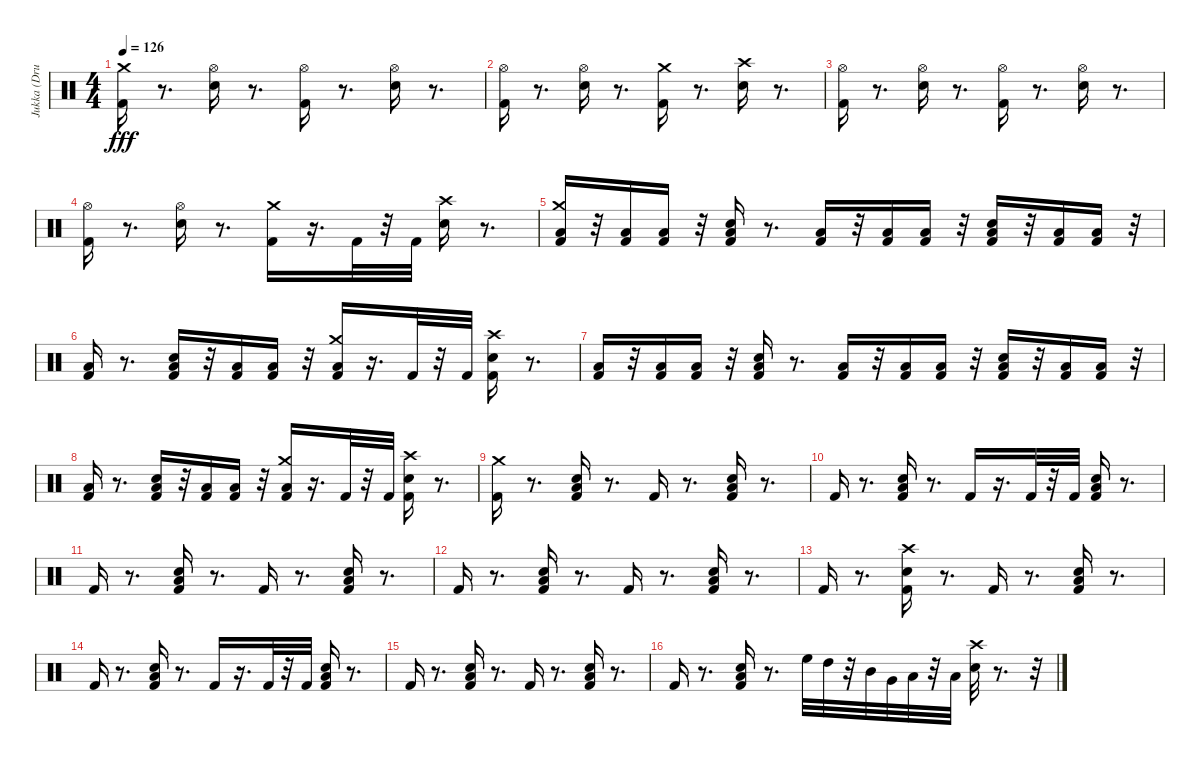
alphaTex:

\track ("Jukka (Drums)" "Jukka (Dru") {instrument percussion}
\staff {score}
\articulation defaults
\ts (4 4)
\tempo 126
\clef neutral
\ks c
("Kick (hit) 2" "Crash medium (hit)").16{dy fff} r.8{d} ("Electric Snare (hit)" "Hi-Hat (open)").16 r.8{d} ("Kick (hit) 2" "Hi-Hat (open)").16 r.8{d} ("Electric Snare (hit)" "Hi-Hat (open)").16 r.8{d} |
("Kick (hit) 2" "Hi-Hat (open)").16 r.8{d} ("Electric Snare (hit)" "Hi-Hat (open)").16 r.8{d} ("Kick (hit) 2" "Crash medium (hit)").16 r.8{d} ("Electric Snare (hit)" "Crash high (hit)").16 r.8{d} |
("Kick (hit) 2" "Hi-Hat (open)").16 r.8{d} ("Electric Snare (hit)" "Hi-Hat (open)").16 r.8{d} ("Kick (hit) 2" "Hi-Hat (open)").16 r.8{d} ("Electric Snare (hit)" "Hi-Hat (open)").16 r.8{d} |
("Kick (hit) 2" "Hi-Hat (open)").16 r.8{d} ("Electric Snare (hit)" "Hi-Hat (open)").16 r.8{d} ("Kick (hit) 2" "Crash medium (hit)").16 r.16{d} "Kick (hit) 2".32 r.32 "Kick (hit) 2".32 ("Electric Snare (hit)" "Crash high (hit)").16 r.8{d} |
("Kick (hit) 2" "Low Floor Tom (hit)" "Crash medium (hit)").16 r.32 ("Kick (hit) 2" "Low Floor Tom (hit)").16 ("Low Floor Tom (hit)" "Kick (hit) 2").16 r.32 ("Electric Snare (hit)" "Kick (hit) 2" "Low Floor Tom (hit)").16 r.8{d} ("Kick (hit) 2" "Low Floor Tom (hit)").16 r.32 ("Kick (hit) 2" "Low Floor Tom (hit)").16 ("Kick (hit) 2" "Low Floor Tom (hit)").16 r.32 ("Electric Snare (hit)" "Kick (hit) 2" "Low Floor Tom (hit)").16 r.32 ("Kick (hit) 2" "Low Floor Tom (hit)").16 ("Kick (hit) 2" "Low Floor Tom (hit)").16 r.32 |
("Kick (hit) 2" "Low Floor Tom (hit)").16 r.8{d} ("Electric Snare (hit)" "Kick (hit) 2" "Low Floor Tom (hit)").16 r.32 ("Kick (hit) 2" "Low Floor Tom (hit)").16 ("Kick (hit) 2" "Low Floor Tom (hit)").16 r.32 ("Kick (hit) 2" "Low Floor Tom (hit)" "Crash medium (hit)").16 r.16{d} "Kick (hit) 2".32 r.32 "Kick (hit) 2".32 ("Electric Snare (hit)" "Kick (hit) 2" "Crash high (hit)").16 r.8{d} |
("Kick (hit) 2" "Low Floor Tom (hit)").16 r.32 ("Kick (hit) 2" "Low Floor Tom (hit)").16 ("Kick (hit) 2" "Low Floor Tom (hit)").16 r.32 ("Electric Snare (hit)" "Kick (hit) 2" "Low Floor Tom (hit)").16 r.8{d} ("Kick (hit) 2" "Low Floor Tom (hit)").16 r.32 ("Kick (hit) 2" "Low Floor Tom (hit)").16 ("Kick (hit) 2" "Low Floor Tom (hit)").16 r.32 ("Electric Snare (hit)" "Kick (hit) 2" "Low Floor Tom (hit)").16 r.32 ("Kick (hit) 2" "Low Floor Tom (hit)").16 ("Kick (hit) 2" "Low Floor Tom (hit)").16 r.32 |
("Kick (hit) 2" "Low Floor Tom (hit)").16 r.8{d} ("Electric Snare (hit)" "Kick (hit) 2" "Low Floor Tom (hit)").16 r.32 ("Kick (hit) 2" "Low Floor Tom (hit)").16 ("Kick (hit) 2" "Low Floor Tom (hit)").16 r.32 ("Kick (hit) 2" "Low Floor Tom (hit)" "Crash medium (hit)").16 r.16{d} "Kick (hit) 2".32 r.32 "Kick (hit) 2".32 ("Electric Snare (hit)" "Kick (hit) 2" "Crash high (hit)").16 r.8{d} |
("Kick (hit) 2" "Crash medium (hit)").16 r.8{d} ("Electric Snare (hit)" "Low Floor Tom (hit)" "Kick (hit) 2").16 r.8{d} "Kick (hit) 2".16 r.8{d} ("Electric Snare (hit)" "Low Floor Tom (hit)" "Kick (hit) 2").16 r.8{d} |
"Kick (hit) 2".16 r.8{d} ("Electric Snare (hit)" "Low Floor Tom (hit)" "Kick (hit) 2").16 r.8{d} "Kick (hit) 2".16 r.16{d} "Kick (hit) 2".32 r.32 "Kick (hit) 2".32 ("Electric Snare (hit)" "Low Floor Tom (hit)" "Kick (hit) 2").16 r.8{d} |
"Kick (hit) 2".16 r.8{d} ("Electric Snare (hit)" "Low Floor Tom (hit)" "Kick (hit) 2").16 r.8{d} "Kick (hit) 2".16 r.8{d} ("Electric Snare (hit)" "Low Floor Tom (hit)" "Kick (hit) 2").16 r.8{d} |
"Kick (hit) 2".16 r.8{d} ("Electric Snare (hit)" "Low Floor Tom (hit)" "Kick (hit) 2").16 r.8{d} "Kick (hit) 2".16 r.8{d} ("Electric Snare (hit)" "Low Floor Tom (hit)" "Kick (hit) 2").16 r.8{d} |
"Kick (hit) 2".16 r.8{d} ("Electric Snare (hit)" "Kick (hit) 2" "Crash high (hit)").16 r.8{d} "Kick (hit) 2".16 r.8{d} ("Electric Snare (hit)" "Low Floor Tom (hit)" "Kick (hit) 2").16 r.8{d} |
"Kick (hit) 2".16 r.8{d} ("Electric Snare (hit)" "Low Floor Tom (hit)" "Kick (hit) 2").16 r.8{d} "Kick (hit) 2".16 r.16{d} "Kick (hit) 2".32 r.32 "Kick (hit) 2".32 ("Electric Snare (hit)" "Low Floor Tom (hit)" "Kick (hit) 2").16 r.8{d} |
"Kick (hit) 2".16 r.8{d} ("Electric Snare (hit)" "Low Floor Tom (hit)" "Kick (hit) 2").16 r.8{d} "Kick (hit) 2".16 r.8{d} ("Electric Snare (hit)" "Low Floor Tom (hit)" "Kick (hit) 2").16 r.8{d} |
"Kick (hit) 2".16 r.8{d} ("Electric Snare (hit)" "Low Floor Tom (hit)" "Kick (hit) 2").16 r.8{d} "High Floor Tom (hit)".32 "High Tom (hit)".32 r.32 "Mid Tom (hit)".32 "Very Low Tom (hit)".32 "Low Tom (hit)".32 r.32 "Low Floor Tom (hit)".32 ("Electric Snare (hit)" "Crash high (hit)").32 r.8{d} r.32
